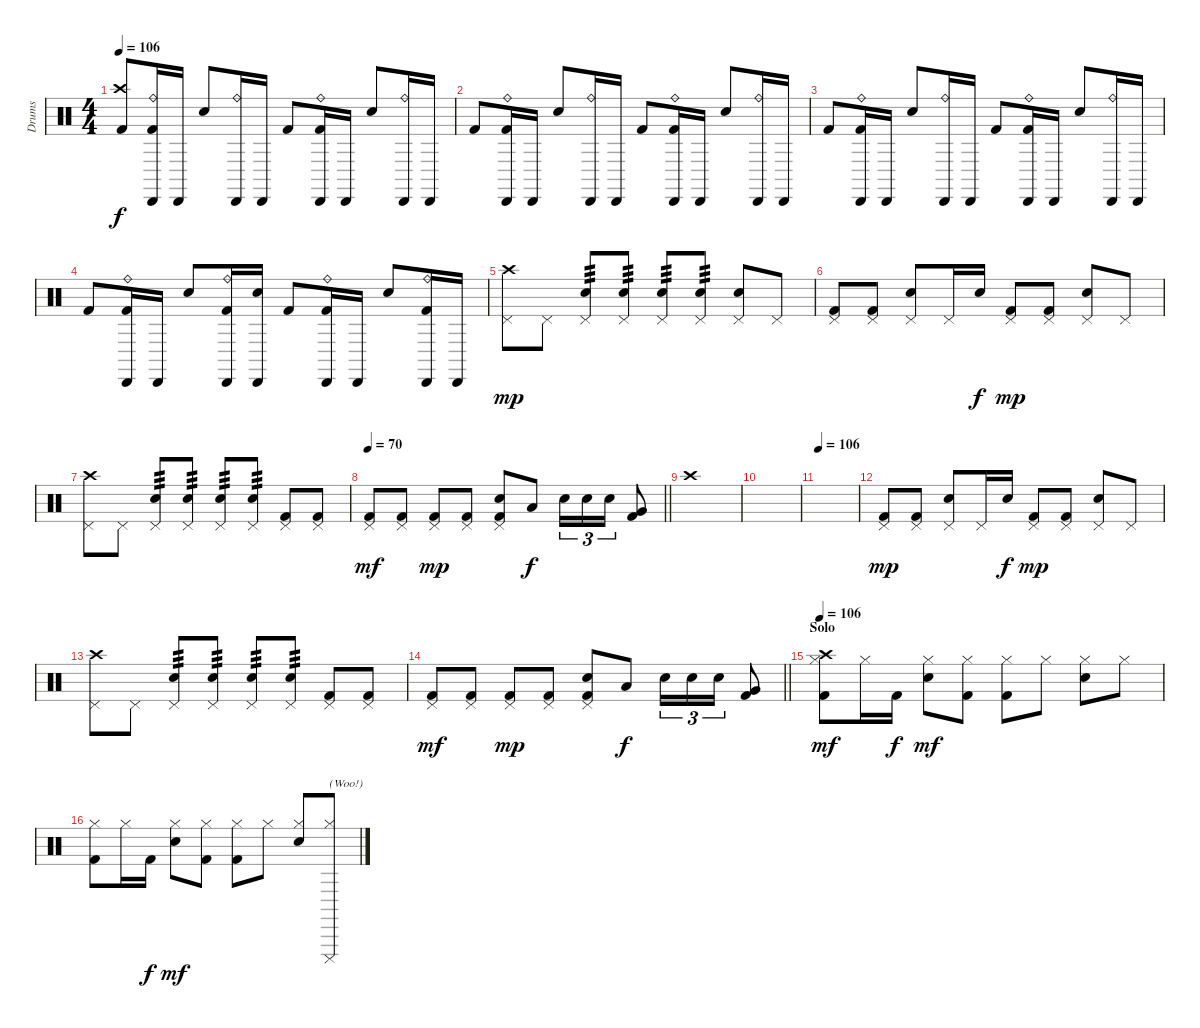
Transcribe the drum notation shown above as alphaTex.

\track ("Drums" "Drums") {instrument percussion}
\staff {score}
\articulation defaults
\ts (4 4)
\tempo 106
\clef neutral
\ks c
("Crash high (hit)" "Kick (hit) 2").8{dy f} ("Ride (bell)" "Cabasa (hit)" "Kick (hit) 2").16 "Cabasa (hit)".16 "Snare (hit) 2".8 ("Ride (bell)" "Cabasa (hit)").16 "Cabasa (hit)".16 "Kick (hit) 2".8 ("Ride (bell)" "Cabasa (hit)" "Kick (hit) 2").16 "Cabasa (hit)".16 "Snare (hit) 2".8 ("Ride (bell)" "Cabasa (hit)").16 "Cabasa (hit)".16 |
"Kick (hit) 2".8 ("Ride (bell)" "Cabasa (hit)" "Kick (hit) 2").16 "Cabasa (hit)".16 "Snare (hit) 2".8 ("Ride (bell)" "Cabasa (hit)").16 "Cabasa (hit)".16 "Kick (hit) 2".8 ("Ride (bell)" "Cabasa (hit)" "Kick (hit) 2").16 "Cabasa (hit)".16 "Snare (hit) 2".8 ("Ride (bell)" "Cabasa (hit)").16 "Cabasa (hit)".16 |
"Kick (hit) 2".8 ("Ride (bell)" "Cabasa (hit)" "Kick (hit) 2").16 "Cabasa (hit)".16 "Snare (hit) 2".8 ("Ride (bell)" "Cabasa (hit)").16 "Cabasa (hit)".16 "Kick (hit) 2".8 ("Ride (bell)" "Cabasa (hit)" "Kick (hit) 2").16 "Cabasa (hit)".16 "Snare (hit) 2".8 ("Ride (bell)" "Cabasa (hit)").16 "Cabasa (hit)".16 |
"Kick (hit) 2".8 ("Ride (bell)" "Cabasa (hit)" "Kick (hit) 2").16 "Cabasa (hit)".16 "Snare (hit) 2".8 ("Ride (bell)" "Cabasa (hit)" "Kick (hit) 2").16 ("Cabasa (hit)" "Snare (hit) 2").16 "Kick (hit) 2".8 ("Ride (bell)" "Cabasa (hit)" "Kick (hit) 2").16 "Cabasa (hit)".16 "Snare (hit) 2".8 ("Ride (bell)" "Cabasa (hit)" "Kick (hit) 2").16 "Cabasa (hit)".16 |
("Crash high (hit)" "Pedal Hi-Hat (hit)").8{dy mp} "Pedal Hi-Hat (hit)".8 ("Snare (hit) 2" "Pedal Hi-Hat (hit)").8{tp 3} ("Snare (hit) 2" "Pedal Hi-Hat (hit)").8{tp 3} ("Snare (hit) 2" "Pedal Hi-Hat (hit)").8{tp 3} ("Snare (hit) 2" "Pedal Hi-Hat (hit)").8{tp 3} ("Snare (hit) 2" "Pedal Hi-Hat (hit)").8 "Pedal Hi-Hat (hit)".8 |
("Pedal Hi-Hat (hit)" "Kick (hit) 2").8 ("Pedal Hi-Hat (hit)" "Kick (hit) 2").8 ("Snare (hit) 2" "Pedal Hi-Hat (hit)").8 "Pedal Hi-Hat (hit)".16 "Snare (hit) 2".16{dy f} ("Pedal Hi-Hat (hit)" "Kick (hit) 2").8{dy mp} ("Pedal Hi-Hat (hit)" "Kick (hit) 2").8 ("Snare (hit) 2" "Pedal Hi-Hat (hit)").8 "Pedal Hi-Hat (hit)".8 |
("Crash high (hit)" "Pedal Hi-Hat (hit)").8 "Pedal Hi-Hat (hit)".8 ("Snare (hit) 2" "Pedal Hi-Hat (hit)").8{tp 3} ("Snare (hit) 2" "Pedal Hi-Hat (hit)").8{tp 3} ("Snare (hit) 2" "Pedal Hi-Hat (hit)").8{tp 3} ("Snare (hit) 2" "Pedal Hi-Hat (hit)").8{tp 3} ("Pedal Hi-Hat (hit)" "Kick (hit) 2").8 ("Pedal Hi-Hat (hit)" "Kick (hit) 2").8 |
\tempo 70
\barLineRight lightlight
("Pedal Hi-Hat (hit)" "Kick (hit) 2").8{dy mf} ("Pedal Hi-Hat (hit)" "Kick (hit) 2").8 ("Pedal Hi-Hat (hit)" "Kick (hit) 2").8{dy mp} ("Pedal Hi-Hat (hit)" "Kick (hit) 2").8 ("Snare (hit) 2" "Pedal Hi-Hat (hit)" "Kick (hit) 2").8 "Low Tom (hit)".8{dy f} "Snare (hit) 2".16{tu (3 2)} "Snare (hit) 2".16{tu (3 2)} "Electric Snare (hit)".16{tu (3 2)} ("Very Low Tom (hit)" "Kick (hit) 2").8 |
\section ("" "")
"Crash high (hit)".1 |
|
\tempo 106
|
("Pedal Hi-Hat (hit)" "Kick (hit) 2").8{dy mp} ("Pedal Hi-Hat (hit)" "Kick (hit) 2").8 ("Snare (hit) 2" "Pedal Hi-Hat (hit)").8 "Pedal Hi-Hat (hit)".16 "Snare (hit) 2".16{dy f} ("Pedal Hi-Hat (hit)" "Kick (hit) 2").8{dy mp} ("Pedal Hi-Hat (hit)" "Kick (hit) 2").8 ("Snare (hit) 2" "Pedal Hi-Hat (hit)").8 "Pedal Hi-Hat (hit)".8 |
("Crash high (hit)" "Pedal Hi-Hat (hit)").8 "Pedal Hi-Hat (hit)".8 ("Snare (hit) 2" "Pedal Hi-Hat (hit)").8{tp 3} ("Snare (hit) 2" "Pedal Hi-Hat (hit)").8{tp 3} ("Snare (hit) 2" "Pedal Hi-Hat (hit)").8{tp 3} ("Snare (hit) 2" "Pedal Hi-Hat (hit)").8{tp 3} ("Pedal Hi-Hat (hit)" "Kick (hit) 2").8 ("Pedal Hi-Hat (hit)" "Kick (hit) 2").8 |
\barLineRight lightlight
("Pedal Hi-Hat (hit)" "Kick (hit) 2").8{dy mf} ("Pedal Hi-Hat (hit)" "Kick (hit) 2").8 ("Pedal Hi-Hat (hit)" "Kick (hit) 2").8{dy mp} ("Pedal Hi-Hat (hit)" "Kick (hit) 2").8 ("Snare (hit) 2" "Pedal Hi-Hat (hit)" "Kick (hit) 2").8 "Low Tom (hit)".8{dy f} "Snare (hit) 2".16{tu (3 2)} "Snare (hit) 2".16{tu (3 2)} "Electric Snare (hit)".16{tu (3 2)} ("Very Low Tom (hit)" "Kick (hit) 2").8 |
\section ("" "Solo")
\tempo 106
("Crash high (hit)" "Hi-Hat (closed)" "Kick (hit) 2").8{dy mf} "Hi-Hat (closed)".16 "Kick (hit) 2".16{dy f} ("Hi-Hat (closed)" "Snare (hit) 2").8{dy mf} ("Hi-Hat (closed)" "Kick (hit) 2").8 ("Hi-Hat (closed)" "Kick (hit) 2").8 "Hi-Hat (closed)".8 ("Hi-Hat (closed)" "Snare (hit) 2").8 "Hi-Hat (closed)".8 |
("Hi-Hat (closed)" "Kick (hit) 2").8 "Hi-Hat (closed)".16 "Kick (hit) 2".16{dy f} ("Hi-Hat (closed)" "Snare (hit) 2").8{dy mf} ("Hi-Hat (closed)" "Kick (hit) 2").8 ("Hi-Hat (closed)" "Kick (hit) 2").8 "Hi-Hat (closed)".8 ("Hi-Hat (closed)" "Snare (hit) 2").8 ("Cuica (mute)" "Hi-Hat (closed)").8{txt "(Woo!)"}
